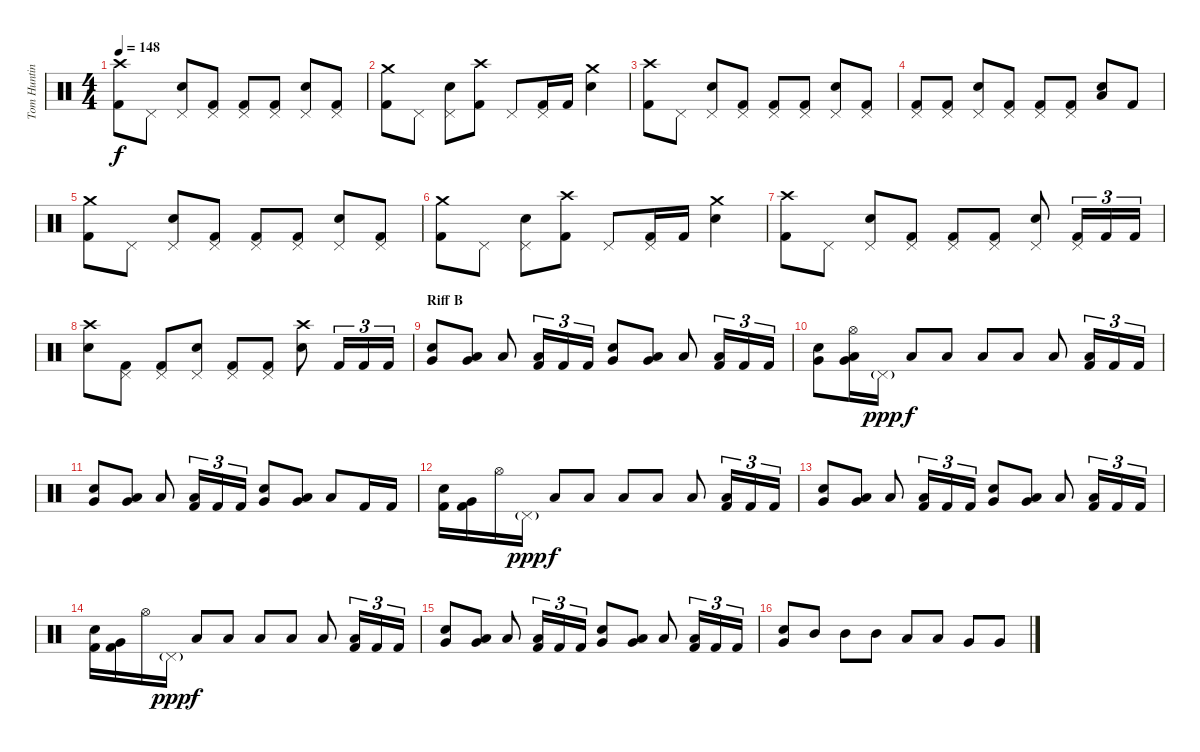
\track ("Tom Hunting" "Tom Huntin") {instrument percussion}
\staff {score}
\articulation defaults
\ts (4 4)
\tempo 148
\clef neutral
\ks c
("Kick (hit) 2" "Crash high (hit)").8{dy f} "Pedal Hi-Hat (hit)".8 ("Pedal Hi-Hat (hit)" "Snare (hit) 2").8 ("Kick (hit) 2" "Pedal Hi-Hat (hit)").8 ("Kick (hit) 2" "Pedal Hi-Hat (hit)").8 ("Kick (hit) 2" "Pedal Hi-Hat (hit)").8 ("Pedal Hi-Hat (hit)" "Snare (hit) 2").8 ("Kick (hit) 2" "Pedal Hi-Hat (hit)").8 |
("Kick (hit) 2" "Crash medium (hit)").8 "Pedal Hi-Hat (hit)".8 ("Pedal Hi-Hat (hit)" "Snare (hit) 2").8 ("Kick (hit) 2" "Crash high (hit)").8 "Pedal Hi-Hat (hit)".8 ("Kick (hit) 2" "Pedal Hi-Hat (hit)").16 "Kick (hit) 2".16 ("Crash medium (hit)" "Snare (hit) 2").4 |
("Kick (hit) 2" "Crash high (hit)").8 "Pedal Hi-Hat (hit)".8 ("Pedal Hi-Hat (hit)" "Snare (hit) 2").8 ("Kick (hit) 2" "Pedal Hi-Hat (hit)").8 ("Kick (hit) 2" "Pedal Hi-Hat (hit)").8 ("Kick (hit) 2" "Pedal Hi-Hat (hit)").8 ("Pedal Hi-Hat (hit)" "Snare (hit) 2").8 ("Kick (hit) 2" "Pedal Hi-Hat (hit)").8 |
("Kick (hit) 2" "Pedal Hi-Hat (hit)").8 ("Kick (hit) 2" "Pedal Hi-Hat (hit)").8 ("Pedal Hi-Hat (hit)" "Snare (hit) 2").8 ("Kick (hit) 2" "Pedal Hi-Hat (hit)").8 ("Kick (hit) 2" "Pedal Hi-Hat (hit)").8 ("Kick (hit) 2" "Pedal Hi-Hat (hit)").8 ("Snare (hit) 2" "Low Tom (hit)").8 "Kick (hit) 2".8 |
("Kick (hit) 2" "Crash medium (hit)").8 "Pedal Hi-Hat (hit)".8 ("Pedal Hi-Hat (hit)" "Snare (hit) 2").8 ("Kick (hit) 2" "Pedal Hi-Hat (hit)").8 ("Kick (hit) 2" "Pedal Hi-Hat (hit)").8 ("Kick (hit) 2" "Pedal Hi-Hat (hit)").8 ("Pedal Hi-Hat (hit)" "Snare (hit) 2").8 ("Kick (hit) 2" "Pedal Hi-Hat (hit)").8 |
("Kick (hit) 2" "Crash medium (hit)").8 "Pedal Hi-Hat (hit)".8 ("Pedal Hi-Hat (hit)" "Snare (hit) 2").8 ("Kick (hit) 2" "Crash high (hit)").8 "Pedal Hi-Hat (hit)".8 ("Kick (hit) 2" "Pedal Hi-Hat (hit)").16 "Kick (hit) 2".16 ("Crash medium (hit)" "Snare (hit) 2").4 |
("Kick (hit) 2" "Crash high (hit)").8 "Pedal Hi-Hat (hit)".8 ("Pedal Hi-Hat (hit)" "Snare (hit) 2").8 ("Kick (hit) 2" "Pedal Hi-Hat (hit)").8 ("Kick (hit) 2" "Pedal Hi-Hat (hit)").8 ("Kick (hit) 2" "Pedal Hi-Hat (hit)").8 ("Pedal Hi-Hat (hit)" "Snare (hit) 2").8 ("Kick (hit) 2" "Pedal Hi-Hat (hit)").16{tu (3 2)} "Kick (hit) 2".16{tu (3 2)} "Kick (hit) 2".16{tu (3 2)} |
("Crash high (hit)" "Snare (hit) 2").8 ("Kick (hit) 2" "Pedal Hi-Hat (hit)").8 ("Kick (hit) 2" "Pedal Hi-Hat (hit)").8 ("Pedal Hi-Hat (hit)" "Snare (hit) 2").8 ("Kick (hit) 2" "Pedal Hi-Hat (hit)").8 ("Kick (hit) 2" "Pedal Hi-Hat (hit)").8 ("Crash high (hit)" "Snare (hit) 2").8 "Kick (hit) 2".16{tu (3 2)} "Kick (hit) 2".16{tu (3 2)} "Kick (hit) 2".16{tu (3 2)} |
\section ("" "Riff B")
("Snare (hit) 2" "Very Low Tom (hit)").8 ("Low Tom (hit)" "Very Low Tom (hit)").8 "Low Floor Tom (hit)".8 ("Kick (hit) 2" "Low Floor Tom (hit)").16{tu (3 2)} "Kick (hit) 2".16{tu (3 2)} "Kick (hit) 2".16{tu (3 2)} ("Snare (hit) 2" "Very Low Tom (hit)").8 ("Low Tom (hit)" "Very Low Tom (hit)").8 "Low Floor Tom (hit)".8 ("Kick (hit) 2" "Low Floor Tom (hit)").16{tu (3 2)} "Kick (hit) 2".16{tu (3 2)} "Kick (hit) 2".16{tu (3 2)} |
("Snare (hit) 2" "Very Low Tom (hit)").8 ("Hi-Hat (open)" "Low Tom (hit)" "Very Low Tom (hit)").16 "Pedal Hi-Hat (hit)"{g}.16{dy ppp} "Low Floor Tom (hit)".8{dy f} "Low Floor Tom (hit)".8 "Low Floor Tom (hit)".8 "Low Floor Tom (hit)".8 "Low Floor Tom (hit)".8 ("Kick (hit) 2" "Low Floor Tom (hit)").16{tu (3 2)} "Kick (hit) 2".16{tu (3 2)} "Kick (hit) 2".16{tu (3 2)} |
("Snare (hit) 2" "Very Low Tom (hit)").8 ("Low Tom (hit)" "Very Low Tom (hit)").8 "Low Floor Tom (hit)".8 ("Kick (hit) 2" "Low Floor Tom (hit)").16{tu (3 2)} "Kick (hit) 2".16{tu (3 2)} "Kick (hit) 2".16{tu (3 2)} ("Snare (hit) 2" "Very Low Tom (hit)").8 ("Low Tom (hit)" "Very Low Tom (hit)").8 "Low Floor Tom (hit)".8 "Kick (hit) 2".16 "Kick (hit) 2".16 |
("Kick (hit) 2" "Electric Snare (hit)").16 ("Kick (hit) 2" "Very Low Tom (hit)").16 "Hi-Hat (open)".16 "Pedal Hi-Hat (hit)"{g}.16{dy ppp} "Low Floor Tom (hit)".8{dy f} "Low Floor Tom (hit)".8 "Low Floor Tom (hit)".8 "Low Floor Tom (hit)".8 "Low Floor Tom (hit)".8 ("Kick (hit) 2" "Low Floor Tom (hit)").16{tu (3 2)} "Kick (hit) 2".16{tu (3 2)} "Kick (hit) 2".16{tu (3 2)} |
("Snare (hit) 2" "Very Low Tom (hit)").8 ("Low Tom (hit)" "Very Low Tom (hit)").8 "Low Floor Tom (hit)".8 ("Kick (hit) 2" "Low Floor Tom (hit)").16{tu (3 2)} "Kick (hit) 2".16{tu (3 2)} "Kick (hit) 2".16{tu (3 2)} ("Snare (hit) 2" "Very Low Tom (hit)").8 ("Low Tom (hit)" "Very Low Tom (hit)").8 "Low Floor Tom (hit)".8 ("Kick (hit) 2" "Low Floor Tom (hit)").16{tu (3 2)} "Kick (hit) 2".16{tu (3 2)} "Kick (hit) 2".16{tu (3 2)} |
("Kick (hit) 2" "Electric Snare (hit)").16 ("Kick (hit) 2" "Very Low Tom (hit)").16 "Hi-Hat (open)".16 "Pedal Hi-Hat (hit)"{g}.16{dy ppp} "Low Floor Tom (hit)".8{dy f} "Low Floor Tom (hit)".8 "Low Floor Tom (hit)".8 "Low Floor Tom (hit)".8 "Low Floor Tom (hit)".8 ("Kick (hit) 2" "Low Floor Tom (hit)").16{tu (3 2)} "Kick (hit) 2".16{tu (3 2)} "Kick (hit) 2".16{tu (3 2)} |
("Snare (hit) 2" "Very Low Tom (hit)").8 ("Low Tom (hit)" "Very Low Tom (hit)").8 "Low Floor Tom (hit)".8 ("Kick (hit) 2" "Low Floor Tom (hit)").16{tu (3 2)} "Kick (hit) 2".16{tu (3 2)} "Kick (hit) 2".16{tu (3 2)} ("Snare (hit) 2" "Very Low Tom (hit)").8 ("Low Tom (hit)" "Very Low Tom (hit)").8 "Low Floor Tom (hit)".8 ("Kick (hit) 2" "Low Floor Tom (hit)").16{tu (3 2)} "Kick (hit) 2".16{tu (3 2)} "Kick (hit) 2".16{tu (3 2)} |
("Electric Snare (hit)" "Very Low Tom (hit)").8 "Mid Tom (hit)".8 "Mid Tom (hit)".8 "Mid Tom (hit)".8 "Low Tom (hit)".8 "Low Tom (hit)".8 "Very Low Tom (hit)".8 "Very Low Tom (hit)".8
